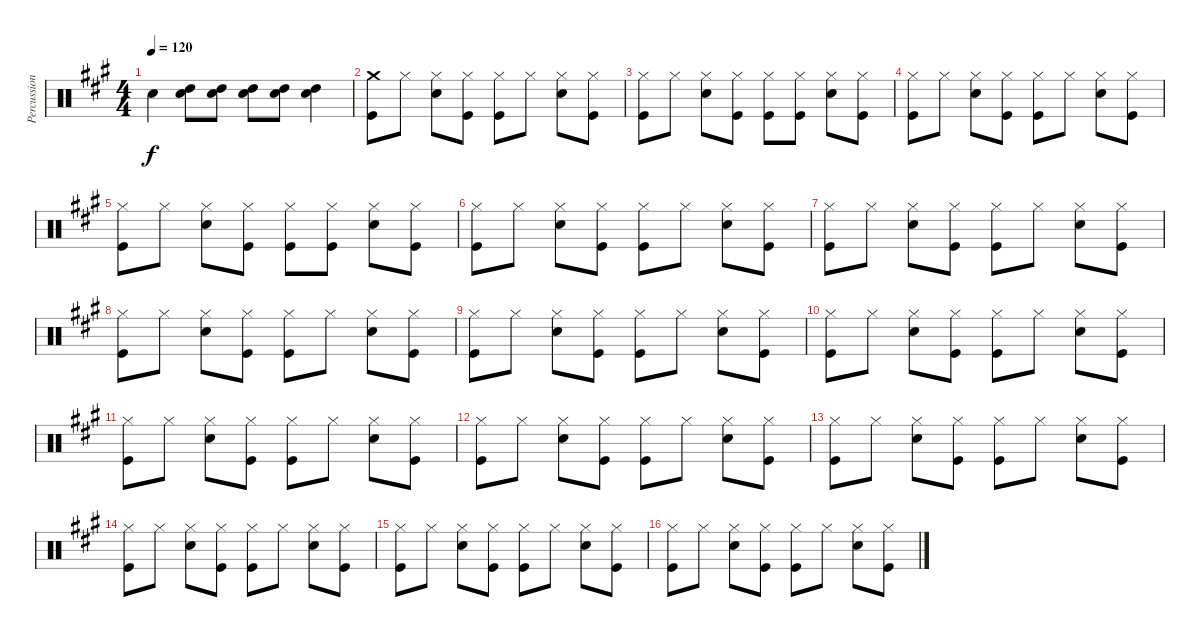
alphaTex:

\track ("Percussion" "Percussion") {instrument percussion}
\staff {score}
\articulation defaults
\ts (4 4)
\tempo 120
\clef neutral
\ks a "Snare (hit)"{t}.4{dy f}
("High Tom (hit)" "Snare (hit) 2").8 ("High Tom (hit)" "Snare (hit) 2").8 ("High Tom (hit)" "Snare (hit) 2").8 ("High Tom (hit)" "Snare (hit) 2").8 ("High Tom (hit)" "Snare (hit) 2").4 |
("Crash medium (hit)" "Kick (hit)").8 "Hi-Hat (closed)".8 ("Hi-Hat (closed)" "Snare (hit) 2").8 ("Hi-Hat (closed)" "Kick (hit)").8 ("Hi-Hat (closed)" "Kick (hit)").8 "Hi-Hat (closed)".8 ("Hi-Hat (closed)" "Snare (hit) 2").8 ("Hi-Hat (closed)" "Kick (hit)").8 |
("Hi-Hat (closed)" "Kick (hit)").8 "Hi-Hat (closed)".8 ("Hi-Hat (closed)" "Snare (hit) 2").8 ("Hi-Hat (closed)" "Kick (hit)").8 ("Hi-Hat (closed)" "Kick (hit)").8 ("Hi-Hat (closed)" "Kick (hit)").8 ("Hi-Hat (closed)" "Snare (hit) 2").8 ("Hi-Hat (closed)" "Kick (hit)").8 |
("Hi-Hat (closed)" "Kick (hit)").8 "Hi-Hat (closed)".8 ("Hi-Hat (closed)" "Snare (hit) 2").8 ("Hi-Hat (closed)" "Kick (hit)").8 ("Hi-Hat (closed)" "Kick (hit)").8 "Hi-Hat (closed)".8 ("Hi-Hat (closed)" "Snare (hit) 2").8 ("Hi-Hat (closed)" "Kick (hit)").8 |
("Hi-Hat (closed)" "Kick (hit)").8 "Hi-Hat (closed)".8 ("Hi-Hat (closed)" "Snare (hit) 2").8 ("Hi-Hat (closed)" "Kick (hit)").8 ("Hi-Hat (closed)" "Kick (hit)").8 ("Hi-Hat (closed)" "Kick (hit)").8 ("Hi-Hat (closed)" "Snare (hit) 2").8 ("Hi-Hat (closed)" "Kick (hit)").8 |
("Hi-Hat (closed)" "Kick (hit)").8 "Hi-Hat (closed)".8 ("Hi-Hat (closed)" "Snare (hit) 2").8 ("Hi-Hat (closed)" "Kick (hit)").8 ("Hi-Hat (closed)" "Kick (hit)").8 "Hi-Hat (closed)".8 ("Hi-Hat (closed)" "Snare (hit) 2").8 ("Hi-Hat (closed)" "Kick (hit)").8 |
("Hi-Hat (closed)" "Kick (hit)").8 "Hi-Hat (closed)".8 ("Hi-Hat (closed)" "Snare (hit) 2").8 ("Hi-Hat (closed)" "Kick (hit)").8 ("Hi-Hat (closed)" "Kick (hit)").8 "Hi-Hat (closed)".8 ("Hi-Hat (closed)" "Snare (hit) 2").8 ("Hi-Hat (closed)" "Kick (hit)").8 |
("Hi-Hat (closed)" "Kick (hit)").8 "Hi-Hat (closed)".8 ("Hi-Hat (closed)" "Snare (hit) 2").8 ("Hi-Hat (closed)" "Kick (hit)").8 ("Hi-Hat (closed)" "Kick (hit)").8 "Hi-Hat (closed)".8 ("Hi-Hat (closed)" "Snare (hit) 2").8 ("Hi-Hat (closed)" "Kick (hit)").8 |
("Hi-Hat (closed)" "Kick (hit)").8 "Hi-Hat (closed)".8 ("Hi-Hat (closed)" "Snare (hit) 2").8 ("Hi-Hat (closed)" "Kick (hit)").8 ("Hi-Hat (closed)" "Kick (hit)").8 "Hi-Hat (closed)".8 ("Hi-Hat (closed)" "Snare (hit) 2").8 ("Hi-Hat (closed)" "Kick (hit)").8 |
("Hi-Hat (closed)" "Kick (hit)").8 "Hi-Hat (closed)".8 ("Hi-Hat (closed)" "Snare (hit) 2").8 ("Hi-Hat (closed)" "Kick (hit)").8 ("Hi-Hat (closed)" "Kick (hit)").8 "Hi-Hat (closed)".8 ("Hi-Hat (closed)" "Snare (hit) 2").8 ("Hi-Hat (closed)" "Kick (hit)").8 |
("Hi-Hat (closed)" "Kick (hit)").8 "Hi-Hat (closed)".8 ("Hi-Hat (closed)" "Snare (hit) 2").8 ("Hi-Hat (closed)" "Kick (hit)").8 ("Hi-Hat (closed)" "Kick (hit)").8 "Hi-Hat (closed)".8 ("Hi-Hat (closed)" "Snare (hit) 2").8 ("Hi-Hat (closed)" "Kick (hit)").8 |
("Hi-Hat (closed)" "Kick (hit)").8 "Hi-Hat (closed)".8 ("Hi-Hat (closed)" "Snare (hit) 2").8 ("Hi-Hat (closed)" "Kick (hit)").8 ("Hi-Hat (closed)" "Kick (hit)").8 "Hi-Hat (closed)".8 ("Hi-Hat (closed)" "Snare (hit) 2").8 ("Hi-Hat (closed)" "Kick (hit)").8 |
("Hi-Hat (closed)" "Kick (hit)").8 "Hi-Hat (closed)".8 ("Hi-Hat (closed)" "Snare (hit) 2").8 ("Hi-Hat (closed)" "Kick (hit)").8 ("Hi-Hat (closed)" "Kick (hit)").8 "Hi-Hat (closed)".8 ("Hi-Hat (closed)" "Snare (hit) 2").8 ("Hi-Hat (closed)" "Kick (hit)").8 |
("Hi-Hat (closed)" "Kick (hit)").8 "Hi-Hat (closed)".8 ("Hi-Hat (closed)" "Snare (hit) 2").8 ("Hi-Hat (closed)" "Kick (hit)").8 ("Hi-Hat (closed)" "Kick (hit)").8 "Hi-Hat (closed)".8 ("Hi-Hat (closed)" "Snare (hit) 2").8 ("Hi-Hat (closed)" "Kick (hit)").8 |
("Hi-Hat (closed)" "Kick (hit)").8 "Hi-Hat (closed)".8 ("Hi-Hat (closed)" "Snare (hit) 2").8 ("Hi-Hat (closed)" "Kick (hit)").8 ("Hi-Hat (closed)" "Kick (hit)").8 "Hi-Hat (closed)".8 ("Hi-Hat (closed)" "Snare (hit) 2").8 ("Hi-Hat (closed)" "Kick (hit)").8 |
("Hi-Hat (closed)" "Kick (hit)").8 "Hi-Hat (closed)".8 ("Hi-Hat (closed)" "Snare (hit) 2").8 ("Hi-Hat (closed)" "Kick (hit)").8 ("Hi-Hat (closed)" "Kick (hit)").8 "Hi-Hat (closed)".8 ("Hi-Hat (closed)" "Snare (hit) 2").8 ("Hi-Hat (closed)" "Kick (hit)").8
